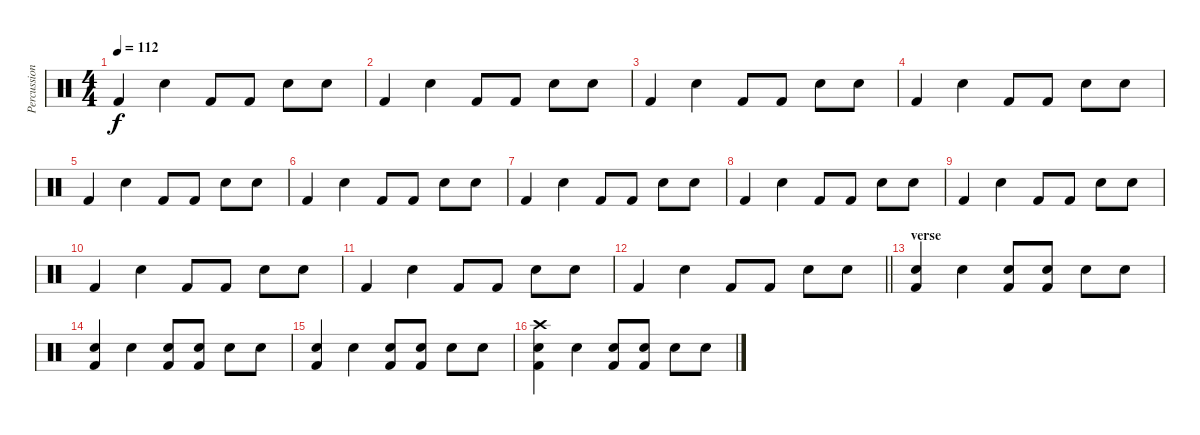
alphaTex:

\track ("Percussions" "Percussion") {instrument percussion}
\staff {score}
\articulation defaults
\ts (4 4)
\tempo 112
\clef neutral
\ks c "Kick (hit) 2".4{dy f} "Electric Snare (hit)".4 "Kick (hit) 2".8 "Kick (hit) 2".8 "Electric Snare (hit)".8 "Electric Snare (hit)".8
|
"Kick (hit) 2".4 "Electric Snare (hit)".4 "Kick (hit) 2".8 "Kick (hit) 2".8 "Electric Snare (hit)".8 "Electric Snare (hit)".8 |
"Kick (hit) 2".4 "Electric Snare (hit)".4 "Kick (hit) 2".8 "Kick (hit) 2".8 "Electric Snare (hit)".8 "Electric Snare (hit)".8 |
"Kick (hit) 2".4 "Electric Snare (hit)".4 "Kick (hit) 2".8 "Kick (hit) 2".8 "Electric Snare (hit)".8 "Electric Snare (hit)".8 |
"Kick (hit) 2".4 "Electric Snare (hit)".4 "Kick (hit) 2".8 "Kick (hit) 2".8 "Electric Snare (hit)".8 "Electric Snare (hit)".8 |
"Kick (hit) 2".4 "Electric Snare (hit)".4 "Kick (hit) 2".8 "Kick (hit) 2".8 "Electric Snare (hit)".8 "Electric Snare (hit)".8 |
"Kick (hit) 2".4 "Electric Snare (hit)".4 "Kick (hit) 2".8 "Kick (hit) 2".8 "Electric Snare (hit)".8 "Electric Snare (hit)".8 |
"Kick (hit) 2".4 "Electric Snare (hit)".4 "Kick (hit) 2".8 "Kick (hit) 2".8 "Electric Snare (hit)".8 "Electric Snare (hit)".8 |
"Kick (hit) 2".4 "Electric Snare (hit)".4 "Kick (hit) 2".8 "Kick (hit) 2".8 "Electric Snare (hit)".8 "Electric Snare (hit)".8 |
"Kick (hit) 2".4 "Electric Snare (hit)".4 "Kick (hit) 2".8 "Kick (hit) 2".8 "Electric Snare (hit)".8 "Electric Snare (hit)".8 |
"Kick (hit) 2".4 "Electric Snare (hit)".4 "Kick (hit) 2".8 "Kick (hit) 2".8 "Electric Snare (hit)".8 "Electric Snare (hit)".8 |
\barLineRight lightlight "Kick (hit) 2".4 "Electric Snare (hit)".4 "Kick (hit) 2".8 "Kick (hit) 2".8 "Electric Snare (hit)".8 "Electric Snare (hit)".8
|
\section ("" "verse")
("Electric Snare (hit)" "Kick (hit) 2").4 "Electric Snare (hit)".4 ("Electric Snare (hit)" "Kick (hit) 2").8 ("Electric Snare (hit)" "Kick (hit) 2").8 "Electric Snare (hit)".8 "Electric Snare (hit)".8 |
("Electric Snare (hit)" "Kick (hit) 2").4 "Electric Snare (hit)".4 ("Electric Snare (hit)" "Kick (hit) 2").8 ("Electric Snare (hit)" "Kick (hit) 2").8 "Electric Snare (hit)".8 "Electric Snare (hit)".8 |
("Electric Snare (hit)" "Kick (hit) 2").4 "Electric Snare (hit)".4 ("Electric Snare (hit)" "Kick (hit) 2").8 ("Electric Snare (hit)" "Kick (hit) 2").8 "Electric Snare (hit)".8 "Electric Snare (hit)".8 |
("Electric Snare (hit)" "Crash high (hit)" "Kick (hit) 2").4 "Electric Snare (hit)".4 ("Electric Snare (hit)" "Kick (hit) 2").8 ("Electric Snare (hit)" "Kick (hit) 2").8 "Electric Snare (hit)".8 "Electric Snare (hit)".8
